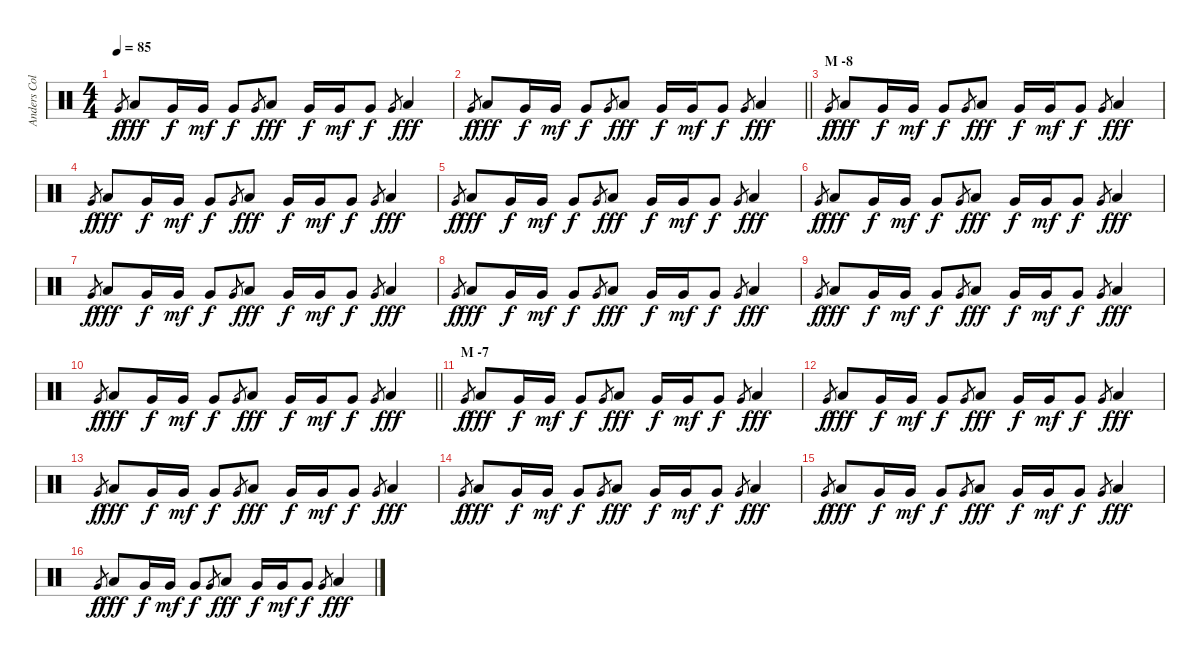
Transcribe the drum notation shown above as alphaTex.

\track ("Anders Colsefni" "Anders Col") {instrument percussion}
\staff {score}
\articulation defaults
\ts (4 4)
\tempo 85
\clef neutral
\ks c "Very Low Tom (hit)".8{gr dy f} "Low Tom (hit)".8{dy fff} "Very Low Tom (hit)".16{dy f} "Very Low Tom (hit)".16{dy mf} "Very Low Tom (hit)".8{dy f} "Very Low Tom (hit)".8{gr} "Low Tom (hit)".8{dy fff} "Very Low Tom (hit)".16{dy f} "Very Low Tom (hit)".16{dy mf} "Very Low Tom (hit)".8{dy f} "Very Low Tom (hit)".8{gr} "Low Tom (hit)".4{dy fff}
|
\barLineRight lightlight "Very Low Tom (hit)".8{gr dy f} "Low Tom (hit)".8{dy fff} "Very Low Tom (hit)".16{dy f} "Very Low Tom (hit)".16{dy mf} "Very Low Tom (hit)".8{dy f} "Very Low Tom (hit)".8{gr} "Low Tom (hit)".8{dy fff} "Very Low Tom (hit)".16{dy f} "Very Low Tom (hit)".16{dy mf} "Very Low Tom (hit)".8{dy f} "Very Low Tom (hit)".8{gr} "Low Tom (hit)".4{dy fff}
|
\section ("" "M -8")
"Very Low Tom (hit)".8{gr dy f} "Low Tom (hit)".8{dy fff} "Very Low Tom (hit)".16{dy f} "Very Low Tom (hit)".16{dy mf} "Very Low Tom (hit)".8{dy f} "Very Low Tom (hit)".8{gr} "Low Tom (hit)".8{dy fff} "Very Low Tom (hit)".16{dy f} "Very Low Tom (hit)".16{dy mf} "Very Low Tom (hit)".8{dy f} "Very Low Tom (hit)".8{gr} "Low Tom (hit)".4{dy fff} |
"Very Low Tom (hit)".8{gr dy f} "Low Tom (hit)".8{dy fff} "Very Low Tom (hit)".16{dy f} "Very Low Tom (hit)".16{dy mf} "Very Low Tom (hit)".8{dy f} "Very Low Tom (hit)".8{gr} "Low Tom (hit)".8{dy fff} "Very Low Tom (hit)".16{dy f} "Very Low Tom (hit)".16{dy mf} "Very Low Tom (hit)".8{dy f} "Very Low Tom (hit)".8{gr} "Low Tom (hit)".4{dy fff} |
"Very Low Tom (hit)".8{gr dy f} "Low Tom (hit)".8{dy fff} "Very Low Tom (hit)".16{dy f} "Very Low Tom (hit)".16{dy mf} "Very Low Tom (hit)".8{dy f} "Very Low Tom (hit)".8{gr} "Low Tom (hit)".8{dy fff} "Very Low Tom (hit)".16{dy f} "Very Low Tom (hit)".16{dy mf} "Very Low Tom (hit)".8{dy f} "Very Low Tom (hit)".8{gr} "Low Tom (hit)".4{dy fff} |
"Very Low Tom (hit)".8{gr dy f} "Low Tom (hit)".8{dy fff} "Very Low Tom (hit)".16{dy f} "Very Low Tom (hit)".16{dy mf} "Very Low Tom (hit)".8{dy f} "Very Low Tom (hit)".8{gr} "Low Tom (hit)".8{dy fff} "Very Low Tom (hit)".16{dy f} "Very Low Tom (hit)".16{dy mf} "Very Low Tom (hit)".8{dy f} "Very Low Tom (hit)".8{gr} "Low Tom (hit)".4{dy fff} |
"Very Low Tom (hit)".8{gr dy f} "Low Tom (hit)".8{dy fff} "Very Low Tom (hit)".16{dy f} "Very Low Tom (hit)".16{dy mf} "Very Low Tom (hit)".8{dy f} "Very Low Tom (hit)".8{gr} "Low Tom (hit)".8{dy fff} "Very Low Tom (hit)".16{dy f} "Very Low Tom (hit)".16{dy mf} "Very Low Tom (hit)".8{dy f} "Very Low Tom (hit)".8{gr} "Low Tom (hit)".4{dy fff} |
"Very Low Tom (hit)".8{gr dy f} "Low Tom (hit)".8{dy fff} "Very Low Tom (hit)".16{dy f} "Very Low Tom (hit)".16{dy mf} "Very Low Tom (hit)".8{dy f} "Very Low Tom (hit)".8{gr} "Low Tom (hit)".8{dy fff} "Very Low Tom (hit)".16{dy f} "Very Low Tom (hit)".16{dy mf} "Very Low Tom (hit)".8{dy f} "Very Low Tom (hit)".8{gr} "Low Tom (hit)".4{dy fff} |
"Very Low Tom (hit)".8{gr dy f} "Low Tom (hit)".8{dy fff} "Very Low Tom (hit)".16{dy f} "Very Low Tom (hit)".16{dy mf} "Very Low Tom (hit)".8{dy f} "Very Low Tom (hit)".8{gr} "Low Tom (hit)".8{dy fff} "Very Low Tom (hit)".16{dy f} "Very Low Tom (hit)".16{dy mf} "Very Low Tom (hit)".8{dy f} "Very Low Tom (hit)".8{gr} "Low Tom (hit)".4{dy fff} |
\barLineRight lightlight "Very Low Tom (hit)".8{gr dy f} "Low Tom (hit)".8{dy fff} "Very Low Tom (hit)".16{dy f} "Very Low Tom (hit)".16{dy mf} "Very Low Tom (hit)".8{dy f} "Very Low Tom (hit)".8{gr} "Low Tom (hit)".8{dy fff} "Very Low Tom (hit)".16{dy f} "Very Low Tom (hit)".16{dy mf} "Very Low Tom (hit)".8{dy f} "Very Low Tom (hit)".8{gr} "Low Tom (hit)".4{dy fff}
|
\section ("" "M -7")
"Very Low Tom (hit)".8{gr dy f} "Low Tom (hit)".8{dy fff} "Very Low Tom (hit)".16{dy f} "Very Low Tom (hit)".16{dy mf} "Very Low Tom (hit)".8{dy f} "Very Low Tom (hit)".8{gr} "Low Tom (hit)".8{dy fff} "Very Low Tom (hit)".16{dy f} "Very Low Tom (hit)".16{dy mf} "Very Low Tom (hit)".8{dy f} "Very Low Tom (hit)".8{gr} "Low Tom (hit)".4{dy fff} |
"Very Low Tom (hit)".8{gr dy f} "Low Tom (hit)".8{dy fff} "Very Low Tom (hit)".16{dy f} "Very Low Tom (hit)".16{dy mf} "Very Low Tom (hit)".8{dy f} "Very Low Tom (hit)".8{gr} "Low Tom (hit)".8{dy fff} "Very Low Tom (hit)".16{dy f} "Very Low Tom (hit)".16{dy mf} "Very Low Tom (hit)".8{dy f} "Very Low Tom (hit)".8{gr} "Low Tom (hit)".4{dy fff} |
"Very Low Tom (hit)".8{gr dy f} "Low Tom (hit)".8{dy fff} "Very Low Tom (hit)".16{dy f} "Very Low Tom (hit)".16{dy mf} "Very Low Tom (hit)".8{dy f} "Very Low Tom (hit)".8{gr} "Low Tom (hit)".8{dy fff} "Very Low Tom (hit)".16{dy f} "Very Low Tom (hit)".16{dy mf} "Very Low Tom (hit)".8{dy f} "Very Low Tom (hit)".8{gr} "Low Tom (hit)".4{dy fff} |
"Very Low Tom (hit)".8{gr dy f} "Low Tom (hit)".8{dy fff} "Very Low Tom (hit)".16{dy f} "Very Low Tom (hit)".16{dy mf} "Very Low Tom (hit)".8{dy f} "Very Low Tom (hit)".8{gr} "Low Tom (hit)".8{dy fff} "Very Low Tom (hit)".16{dy f} "Very Low Tom (hit)".16{dy mf} "Very Low Tom (hit)".8{dy f} "Very Low Tom (hit)".8{gr} "Low Tom (hit)".4{dy fff} |
"Very Low Tom (hit)".8{gr dy f} "Low Tom (hit)".8{dy fff} "Very Low Tom (hit)".16{dy f} "Very Low Tom (hit)".16{dy mf} "Very Low Tom (hit)".8{dy f} "Very Low Tom (hit)".8{gr} "Low Tom (hit)".8{dy fff} "Very Low Tom (hit)".16{dy f} "Very Low Tom (hit)".16{dy mf} "Very Low Tom (hit)".8{dy f} "Very Low Tom (hit)".8{gr} "Low Tom (hit)".4{dy fff} |
"Very Low Tom (hit)".8{gr dy f} "Low Tom (hit)".8{dy fff} "Very Low Tom (hit)".16{dy f} "Very Low Tom (hit)".16{dy mf} "Very Low Tom (hit)".8{dy f} "Very Low Tom (hit)".8{gr} "Low Tom (hit)".8{dy fff} "Very Low Tom (hit)".16{dy f} "Very Low Tom (hit)".16{dy mf} "Very Low Tom (hit)".8{dy f} "Very Low Tom (hit)".8{gr} "Low Tom (hit)".4{dy fff}
